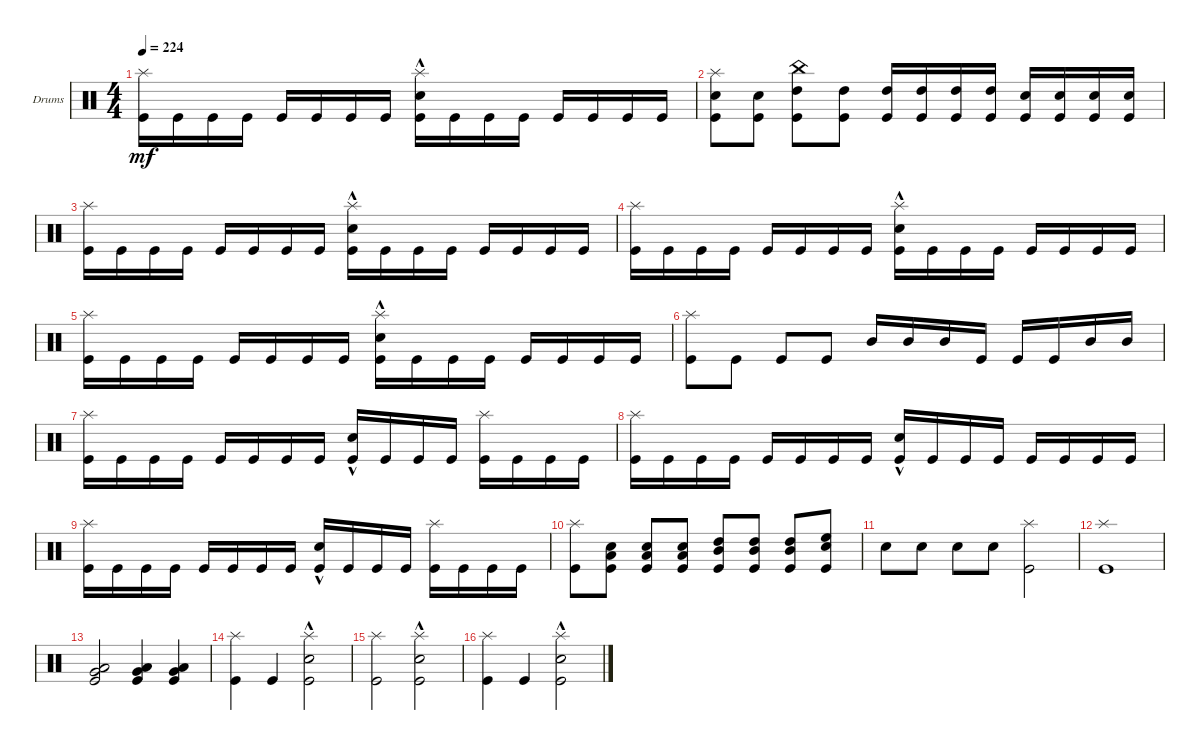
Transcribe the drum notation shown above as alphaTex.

\defaultSystemsLayout 4
\bracketExtendMode groupsimilarinstruments
\firstSystemTrackNameOrientation horizontal
\otherSystemsTrackNameOrientation horizontal
\track ("Drumkit" "Drums") {instrument percussion}
\staff {score}
\articulation defaults
\ts (4 4)
\tempo 224
\clef neutral
\scale
0.333333
\ks c
("Splash (hit)" "Kick (hit)").16{dy mf} "Kick (hit)".16 "Kick (hit)".16 "Kick (hit)".16 "Kick (hit)".16 "Kick (hit)".16 "Kick (hit)".16 "Kick (hit)".16 ("Kick (hit)" "Snare (hit) 2"{hac} "Splash (hit)").16 "Kick (hit)".16 "Kick (hit)".16 "Kick (hit)".16 "Kick (hit)".16 "Kick (hit)".16 "Kick (hit)".16 "Kick (hit)".16 |
\scale
0.333333 ("Kick (hit)" "Snare (hit) 2" "Splash (hit)").8 ("Kick (hit)" "Snare (hit) 2").8 ("Kick (hit)" "High Tom (hit)" "China (hit)").8 ("Kick (hit)" "High Tom (hit)").8 ("Kick (hit)" "High Tom (hit)").16 ("Kick (hit)" "High Tom (hit)").16 ("Kick (hit)" "High Tom (hit)").16 ("Kick (hit)" "High Tom (hit)").16 ("Kick (hit)" "Snare (hit) 2").16 ("Kick (hit)" "Snare (hit) 2").16 ("Kick (hit)" "Snare (hit) 2").16 ("Kick (hit)" "Snare (hit) 2").16 |
\scale
0.333333 ("Splash (hit)" "Kick (hit)").16 "Kick (hit)".16 "Kick (hit)".16 "Kick (hit)".16 "Kick (hit)".16 "Kick (hit)".16 "Kick (hit)".16 "Kick (hit)".16 ("Kick (hit)" "Snare (hit) 2"{hac} "Splash (hit)").16 "Kick (hit)".16 "Kick (hit)".16 "Kick (hit)".16 "Kick (hit)".16 "Kick (hit)".16 "Kick (hit)".16 "Kick (hit)".16 |
\scale
0.333333 ("Splash (hit)" "Kick (hit)").16 "Kick (hit)".16 "Kick (hit)".16 "Kick (hit)".16 "Kick (hit)".16 "Kick (hit)".16 "Kick (hit)".16 "Kick (hit)".16 ("Kick (hit)" "Snare (hit) 2"{hac} "Splash (hit)").16 "Kick (hit)".16 "Kick (hit)".16 "Kick (hit)".16 "Kick (hit)".16 "Kick (hit)".16 "Kick (hit)".16 "Kick (hit)".16 |
\scale
0.333333 ("Splash (hit)" "Kick (hit)").16 "Kick (hit)".16 "Kick (hit)".16 "Kick (hit)".16 "Kick (hit)".16 "Kick (hit)".16 "Kick (hit)".16 "Kick (hit)".16 ("Kick (hit)" "Snare (hit) 2"{hac} "Splash (hit)").16 "Kick (hit)".16 "Kick (hit)".16 "Kick (hit)".16 "Kick (hit)".16 "Kick (hit)".16 "Kick (hit)".16 "Kick (hit)".16 |
\scale
0.333333 ("Kick (hit)" "Splash (hit)").8 "Kick (hit)".8 "Kick (hit)".8 "Kick (hit)".8 "Mid Tom (hit)".16 "Mid Tom (hit)".16 "Mid Tom (hit)".16 "Kick (hit)".16 "Kick (hit)".16 "Kick (hit)".16 "Mid Tom (hit)".16 "Mid Tom (hit)".16 |
\scale
0.333333 ("Splash (hit)" "Kick (hit)").16 "Kick (hit)".16 "Kick (hit)".16 "Kick (hit)".16 "Kick (hit)".16 "Kick (hit)".16 "Kick (hit)".16 "Kick (hit)".16 ("Kick (hit)" "Snare (hit) 2"{hac}).16 "Kick (hit)".16 "Kick (hit)".16 "Kick (hit)".16 ("Kick (hit)" "Splash (hit)").16 "Kick (hit)".16 "Kick (hit)".16 "Kick (hit)".16 |
\scale
0.333333 ("Splash (hit)" "Kick (hit)").16 "Kick (hit)".16 "Kick (hit)".16 "Kick (hit)".16 "Kick (hit)".16 "Kick (hit)".16 "Kick (hit)".16 "Kick (hit)".16 ("Kick (hit)" "Snare (hit) 2"{hac}).16 "Kick (hit)".16 "Kick (hit)".16 "Kick (hit)".16 "Kick (hit)".16 "Kick (hit)".16 "Kick (hit)".16 "Kick (hit)".16 |
\scale
0.333333 ("Splash (hit)" "Kick (hit)").16 "Kick (hit)".16 "Kick (hit)".16 "Kick (hit)".16 "Kick (hit)".16 "Kick (hit)".16 "Kick (hit)".16 "Kick (hit)".16 ("Kick (hit)" "Snare (hit) 2"{hac}).16 "Kick (hit)".16 "Kick (hit)".16 "Kick (hit)".16 ("Kick (hit)" "Splash (hit)").16 "Kick (hit)".16 "Kick (hit)".16 "Kick (hit)".16 |
\scale
0.333333 ("Splash (hit)" "Kick (hit)").8 ("Kick (hit)" "Low Tom (hit)" "Snare (hit) 2").8 ("Kick (hit)" "Low Tom (hit)" "Snare (hit) 2").8 ("Kick (hit)" "Low Tom (hit)" "Snare (hit) 2").8 ("Kick (hit)" "Mid Tom (hit)" "High Tom (hit)").8 ("Kick (hit)" "Mid Tom (hit)" "High Tom (hit)").8 ("Kick (hit)" "Mid Tom (hit)" "High Tom (hit)").8 ("Kick (hit)" "Snare (hit) 2" "High Floor Tom (hit)").8 |
\scale
0.333333 "Snare (hit) 2".8 "Snare (hit) 2".8 "Snare (hit) 2".8 "Snare (hit) 2".8 ("Splash (hit)" "Kick (hit)").2 |
\scale
0.333333 ("Splash (hit)" "Kick (hit)").1 |
\scale
0.333333 ("Kick (hit)" "Very Low Tom (hit)" "Low Tom (hit)").2 ("Kick (hit)" "Very Low Tom (hit)" "Low Tom (hit)").4 ("Kick (hit)" "Very Low Tom (hit)" "Low Tom (hit)").4 |
\scale
0.333333 ("Splash (hit)" "Kick (hit)").4 "Kick (hit)".4 ("Kick (hit)" "Splash (hit)" "Snare (hit) 2"{hac}).2 |
\scale
0.333333 ("Splash (hit)" "Kick (hit)").2 ("Snare (hit) 2"{hac} "Kick (hit)" "Splash (hit)").2 |
\scale
0.333333 ("Splash (hit)" "Kick (hit)").4 "Kick (hit)".4 ("Kick (hit)" "Splash (hit)" "Snare (hit) 2"{hac}).2
